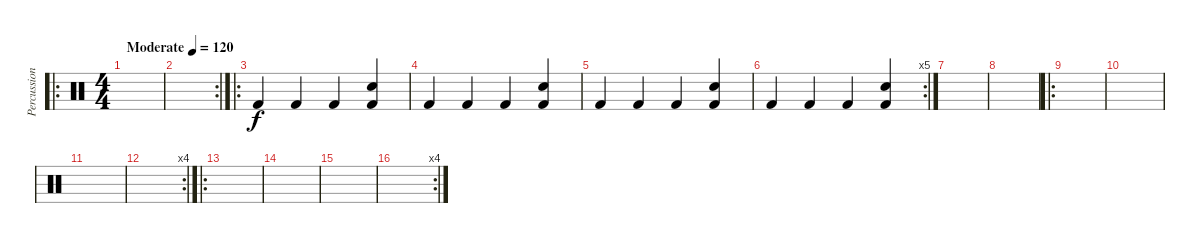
\track ("Percussion" "Percussion") {instrument percussion}
\staff {score}
\articulation defaults
\ro
\ts (4 4)
\tempo (120 "Moderate")
\clef neutral
\ks c
|
\rc 2
|
\ro "Kick (hit) 2".4 "Kick (hit) 2".4 "Kick (hit) 2".4
("Snare (hit) 2" "Kick (hit) 2").4 |
"Kick (hit) 2".4 "Kick (hit) 2".4 "Kick (hit) 2".4 ("Snare (hit) 2" "Kick (hit) 2").4 |
"Kick (hit) 2".4 "Kick (hit) 2".4 "Kick (hit) 2".4 ("Snare (hit) 2" "Kick (hit) 2").4 |
\rc 5 "Kick (hit) 2".4 "Kick (hit) 2".4 "Kick (hit) 2".4
("Snare (hit) 2" "Kick (hit) 2").4 |
|
|
\ro
|
|
|
\rc 4
|
\ro
|
|
|
\rc 4
